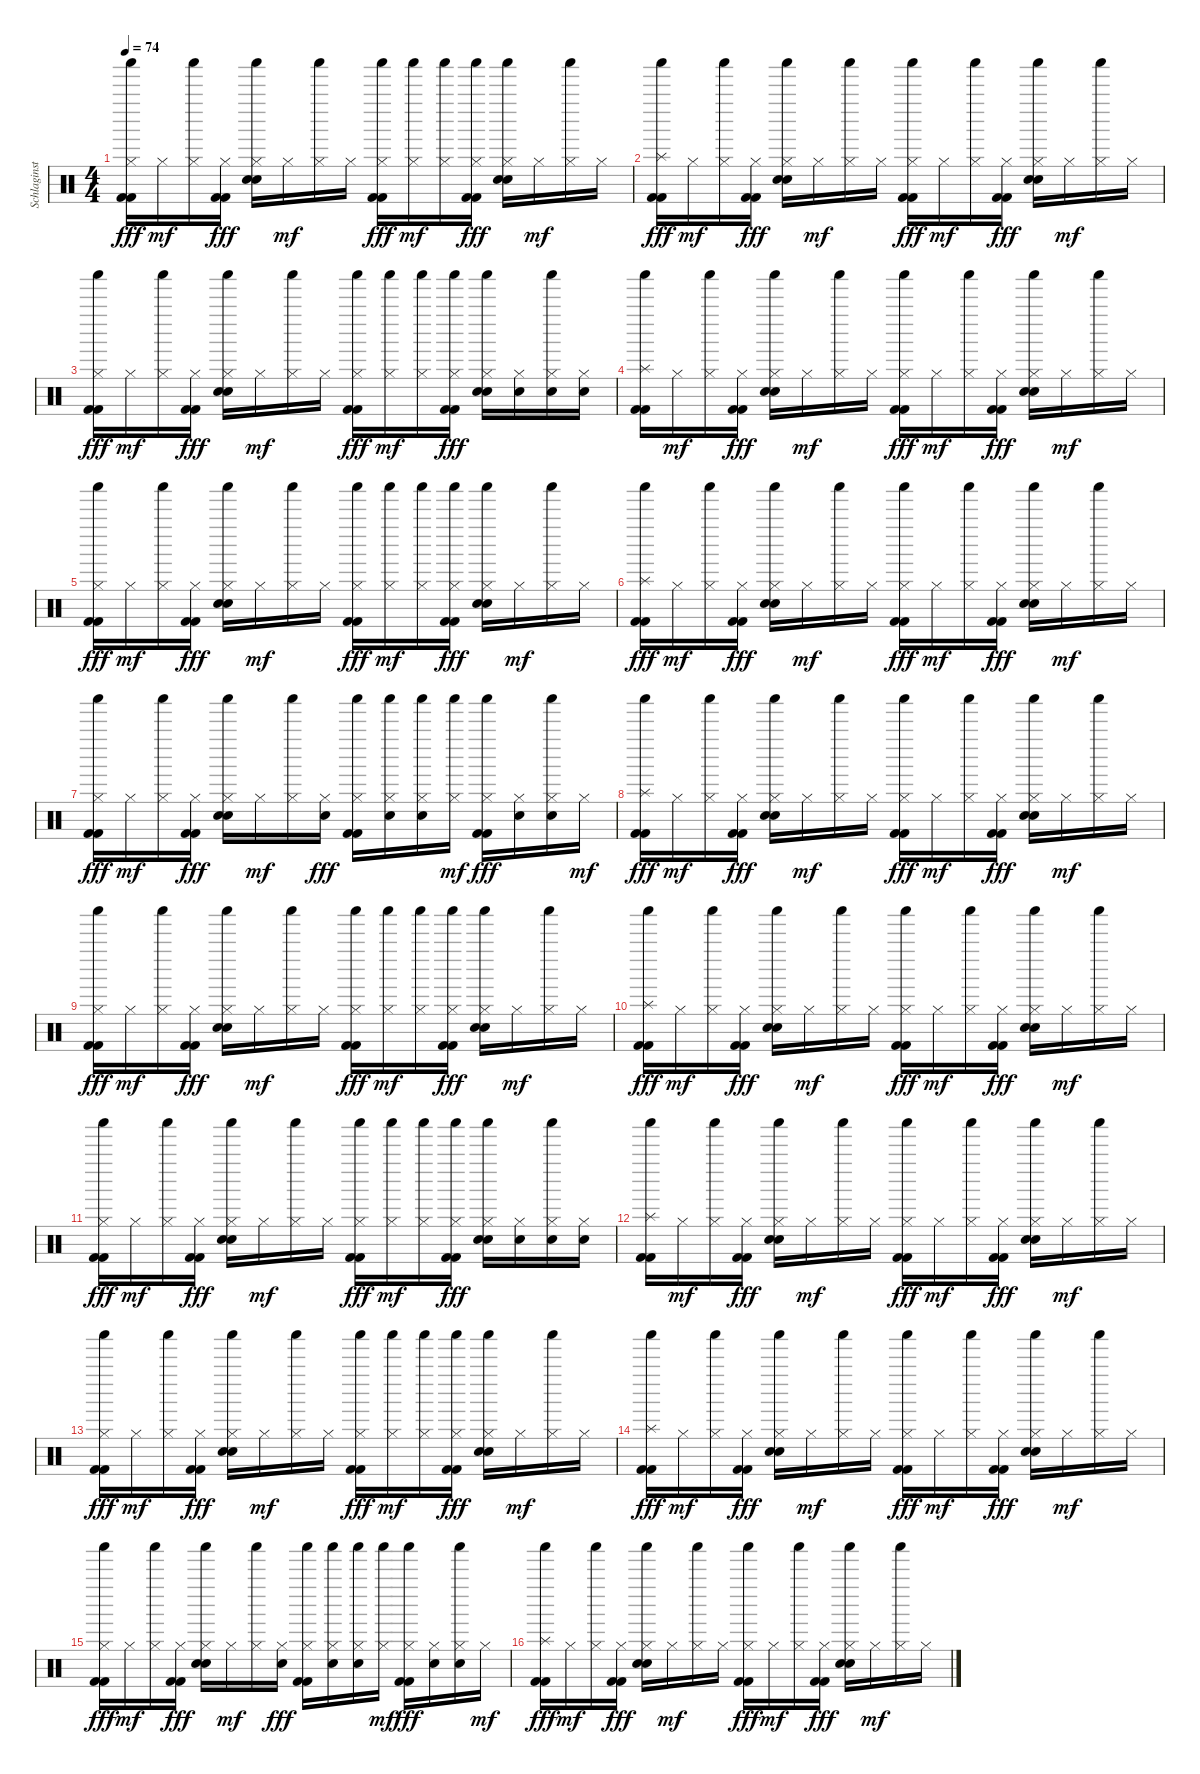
\track ("Schlaginstrumente - Auswahl" "Schlaginst") {instrument percussion}
\staff {score}
\articulation defaults
\ts (4 4)
\tempo 74
\clef neutral
\ks c
("Shaker (hit)" "Hi-Hat (closed)" "Kick (hit) 2" "Kick (hit) 2").16{dy fff} "Hi-Hat (closed)".16{dy mf} ("Shaker (hit)" "Hi-Hat (closed)").16 ("Hi-Hat (closed)" "Kick (hit) 2" "Kick (hit) 2").16{dy fff} ("Shaker (hit)" "Hi-Hat (closed)" "Electric Snare (hit)" "Hand Clap (hit)").16 "Hi-Hat (closed)".16{dy mf} ("Shaker (hit)" "Hi-Hat (closed)").16 "Hi-Hat (closed)".16 ("Shaker (hit)" "Hi-Hat (closed)" "Kick (hit) 2" "Kick (hit) 2").16{dy fff} ("Shaker (hit)" "Hi-Hat (closed)").16{dy mf} ("Shaker (hit)" "Hi-Hat (closed)").16 ("Shaker (hit)" "Hi-Hat (closed)" "Kick (hit) 2" "Kick (hit) 2").16{dy fff} ("Shaker (hit)" "Hi-Hat (closed)" "Electric Snare (hit)" "Hand Clap (hit)").16 "Hi-Hat (closed)".16{dy mf} ("Shaker (hit)" "Hi-Hat (closed)").16 "Hi-Hat (closed)".16 |
("Shaker (hit)" "Splash (hit)" "Kick (hit) 2" "Kick (hit) 2").16{dy fff} "Hi-Hat (closed)".16{dy mf} ("Shaker (hit)" "Hi-Hat (closed)").16 ("Hi-Hat (closed)" "Kick (hit) 2" "Kick (hit) 2").16{dy fff} ("Shaker (hit)" "Hi-Hat (closed)" "Electric Snare (hit)" "Hand Clap (hit)").16 "Hi-Hat (closed)".16{dy mf} ("Shaker (hit)" "Hi-Hat (closed)").16 "Hi-Hat (closed)".16 ("Shaker (hit)" "Hi-Hat (closed)" "Kick (hit) 2" "Kick (hit) 2").16{dy fff} "Hi-Hat (closed)".16{dy mf} ("Shaker (hit)" "Hi-Hat (closed)").16 ("Hi-Hat (closed)" "Kick (hit) 2" "Kick (hit) 2").16{dy fff} ("Shaker (hit)" "Hi-Hat (closed)" "Electric Snare (hit)" "Hand Clap (hit)").16 "Hi-Hat (closed)".16{dy mf} ("Shaker (hit)" "Hi-Hat (closed)").16 "Hi-Hat (closed)".16 |
("Shaker (hit)" "Hi-Hat (closed)" "Kick (hit) 2" "Kick (hit) 2").16{dy fff} "Hi-Hat (closed)".16{dy mf} ("Shaker (hit)" "Hi-Hat (closed)").16 ("Hi-Hat (closed)" "Kick (hit) 2" "Kick (hit) 2").16{dy fff} ("Shaker (hit)" "Hi-Hat (closed)" "Electric Snare (hit)" "Hand Clap (hit)").16 "Hi-Hat (closed)".16{dy mf} ("Shaker (hit)" "Hi-Hat (closed)").16 "Hi-Hat (closed)".16 ("Shaker (hit)" "Hi-Hat (closed)" "Kick (hit) 2" "Kick (hit) 2").16{dy fff} ("Shaker (hit)" "Hi-Hat (closed)").16{dy mf} ("Shaker (hit)" "Hi-Hat (closed)").16 ("Shaker (hit)" "Hi-Hat (closed)" "Kick (hit) 2" "Kick (hit) 2").16{dy fff} ("Shaker (hit)" "Hi-Hat (closed)" "Electric Snare (hit)" "Hand Clap (hit)").16 ("Hi-Hat (closed)" "Electric Snare (hit)").16 ("Shaker (hit)" "Hi-Hat (closed)" "Electric Snare (hit)").16 ("Hi-Hat (closed)" "Electric Snare (hit)").16 |
("Shaker (hit)" "Splash (hit)" "Kick (hit) 2" "Kick (hit) 2").16 "Hi-Hat (closed)".16{dy mf} ("Shaker (hit)" "Hi-Hat (closed)").16 ("Hi-Hat (closed)" "Kick (hit) 2" "Kick (hit) 2").16{dy fff} ("Shaker (hit)" "Hi-Hat (closed)" "Electric Snare (hit)" "Hand Clap (hit)").16 "Hi-Hat (closed)".16{dy mf} ("Shaker (hit)" "Hi-Hat (closed)").16 "Hi-Hat (closed)".16 ("Shaker (hit)" "Hi-Hat (closed)" "Kick (hit) 2" "Kick (hit) 2").16{dy fff} "Hi-Hat (closed)".16{dy mf} ("Shaker (hit)" "Hi-Hat (closed)").16 ("Hi-Hat (closed)" "Kick (hit) 2" "Kick (hit) 2").16{dy fff} ("Shaker (hit)" "Hi-Hat (closed)" "Electric Snare (hit)" "Hand Clap (hit)").16 "Hi-Hat (closed)".16{dy mf} ("Shaker (hit)" "Hi-Hat (closed)").16 "Hi-Hat (closed)".16 |
("Shaker (hit)" "Hi-Hat (closed)" "Kick (hit) 2" "Kick (hit) 2").16{dy fff} "Hi-Hat (closed)".16{dy mf} ("Shaker (hit)" "Hi-Hat (closed)").16 ("Hi-Hat (closed)" "Kick (hit) 2" "Kick (hit) 2").16{dy fff} ("Shaker (hit)" "Hi-Hat (closed)" "Electric Snare (hit)" "Hand Clap (hit)").16 "Hi-Hat (closed)".16{dy mf} ("Shaker (hit)" "Hi-Hat (closed)").16 "Hi-Hat (closed)".16 ("Shaker (hit)" "Hi-Hat (closed)" "Kick (hit) 2" "Kick (hit) 2").16{dy fff} ("Shaker (hit)" "Hi-Hat (closed)").16{dy mf} ("Shaker (hit)" "Hi-Hat (closed)").16 ("Shaker (hit)" "Hi-Hat (closed)" "Kick (hit) 2" "Kick (hit) 2").16{dy fff} ("Shaker (hit)" "Hi-Hat (closed)" "Electric Snare (hit)" "Hand Clap (hit)").16 "Hi-Hat (closed)".16{dy mf} ("Shaker (hit)" "Hi-Hat (closed)").16 "Hi-Hat (closed)".16 |
("Shaker (hit)" "Splash (hit)" "Kick (hit) 2" "Kick (hit) 2").16{dy fff} "Hi-Hat (closed)".16{dy mf} ("Shaker (hit)" "Hi-Hat (closed)").16 ("Hi-Hat (closed)" "Kick (hit) 2" "Kick (hit) 2").16{dy fff} ("Shaker (hit)" "Hi-Hat (closed)" "Electric Snare (hit)" "Hand Clap (hit)").16 "Hi-Hat (closed)".16{dy mf} ("Shaker (hit)" "Hi-Hat (closed)").16 "Hi-Hat (closed)".16 ("Shaker (hit)" "Hi-Hat (closed)" "Kick (hit) 2" "Kick (hit) 2").16{dy fff} "Hi-Hat (closed)".16{dy mf} ("Shaker (hit)" "Hi-Hat (closed)").16 ("Hi-Hat (closed)" "Kick (hit) 2" "Kick (hit) 2").16{dy fff} ("Shaker (hit)" "Hi-Hat (closed)" "Electric Snare (hit)" "Hand Clap (hit)").16 "Hi-Hat (closed)".16{dy mf} ("Shaker (hit)" "Hi-Hat (closed)").16 "Hi-Hat (closed)".16 |
("Shaker (hit)" "Hi-Hat (closed)" "Kick (hit) 2" "Kick (hit) 2").16{dy fff} "Hi-Hat (closed)".16{dy mf} ("Shaker (hit)" "Hi-Hat (closed)").16 ("Hi-Hat (closed)" "Kick (hit) 2" "Kick (hit) 2").16{dy fff} ("Shaker (hit)" "Hi-Hat (closed)" "Electric Snare (hit)" "Hand Clap (hit)").16 "Hi-Hat (closed)".16{dy mf} ("Shaker (hit)" "Hi-Hat (closed)").16 ("Hi-Hat (closed)" "Electric Snare (hit)").16{dy fff} ("Shaker (hit)" "Hi-Hat (closed)" "Kick (hit) 2" "Kick (hit) 2").16 ("Shaker (hit)" "Hi-Hat (closed)" "Electric Snare (hit)").16 ("Shaker (hit)" "Hi-Hat (closed)" "Electric Snare (hit)").16 ("Shaker (hit)" "Hi-Hat (closed)").16{dy mf} ("Shaker (hit)" "Hi-Hat (closed)" "Kick (hit) 2" "Kick (hit) 2").16{dy fff} ("Hi-Hat (closed)" "Electric Snare (hit)").16 ("Shaker (hit)" "Hi-Hat (closed)" "Electric Snare (hit)").16 "Hi-Hat (closed)".16{dy mf} |
("Shaker (hit)" "Splash (hit)" "Kick (hit) 2" "Kick (hit) 2").16{dy fff} "Hi-Hat (closed)".16{dy mf} ("Shaker (hit)" "Hi-Hat (closed)").16 ("Hi-Hat (closed)" "Kick (hit) 2" "Kick (hit) 2").16{dy fff} ("Shaker (hit)" "Hi-Hat (closed)" "Electric Snare (hit)" "Hand Clap (hit)").16 "Hi-Hat (closed)".16{dy mf} ("Shaker (hit)" "Hi-Hat (closed)").16 "Hi-Hat (closed)".16 ("Shaker (hit)" "Hi-Hat (closed)" "Kick (hit) 2" "Kick (hit) 2").16{dy fff} "Hi-Hat (closed)".16{dy mf} ("Shaker (hit)" "Hi-Hat (closed)").16 ("Hi-Hat (closed)" "Kick (hit) 2" "Kick (hit) 2").16{dy fff} ("Shaker (hit)" "Hi-Hat (closed)" "Electric Snare (hit)" "Hand Clap (hit)").16 "Hi-Hat (closed)".16{dy mf} ("Shaker (hit)" "Hi-Hat (closed)").16 "Hi-Hat (closed)".16 |
("Shaker (hit)" "Hi-Hat (closed)" "Kick (hit) 2" "Kick (hit) 2").16{dy fff} "Hi-Hat (closed)".16{dy mf} ("Shaker (hit)" "Hi-Hat (closed)").16 ("Hi-Hat (closed)" "Kick (hit) 2" "Kick (hit) 2").16{dy fff} ("Shaker (hit)" "Hi-Hat (closed)" "Electric Snare (hit)" "Hand Clap (hit)").16 "Hi-Hat (closed)".16{dy mf} ("Shaker (hit)" "Hi-Hat (closed)").16 "Hi-Hat (closed)".16 ("Shaker (hit)" "Hi-Hat (closed)" "Kick (hit) 2" "Kick (hit) 2").16{dy fff} ("Shaker (hit)" "Hi-Hat (closed)").16{dy mf} ("Shaker (hit)" "Hi-Hat (closed)").16 ("Shaker (hit)" "Hi-Hat (closed)" "Kick (hit) 2" "Kick (hit) 2").16{dy fff} ("Shaker (hit)" "Hi-Hat (closed)" "Electric Snare (hit)" "Hand Clap (hit)").16 "Hi-Hat (closed)".16{dy mf} ("Shaker (hit)" "Hi-Hat (closed)").16 "Hi-Hat (closed)".16 |
("Shaker (hit)" "Splash (hit)" "Kick (hit) 2" "Kick (hit) 2").16{dy fff} "Hi-Hat (closed)".16{dy mf} ("Shaker (hit)" "Hi-Hat (closed)").16 ("Hi-Hat (closed)" "Kick (hit) 2" "Kick (hit) 2").16{dy fff} ("Shaker (hit)" "Hi-Hat (closed)" "Electric Snare (hit)" "Hand Clap (hit)").16 "Hi-Hat (closed)".16{dy mf} ("Shaker (hit)" "Hi-Hat (closed)").16 "Hi-Hat (closed)".16 ("Shaker (hit)" "Hi-Hat (closed)" "Kick (hit) 2" "Kick (hit) 2").16{dy fff} "Hi-Hat (closed)".16{dy mf} ("Shaker (hit)" "Hi-Hat (closed)").16 ("Hi-Hat (closed)" "Kick (hit) 2" "Kick (hit) 2").16{dy fff} ("Shaker (hit)" "Hi-Hat (closed)" "Electric Snare (hit)" "Hand Clap (hit)").16 "Hi-Hat (closed)".16{dy mf} ("Shaker (hit)" "Hi-Hat (closed)").16 "Hi-Hat (closed)".16 |
("Shaker (hit)" "Hi-Hat (closed)" "Kick (hit) 2" "Kick (hit) 2").16{dy fff} "Hi-Hat (closed)".16{dy mf} ("Shaker (hit)" "Hi-Hat (closed)").16 ("Hi-Hat (closed)" "Kick (hit) 2" "Kick (hit) 2").16{dy fff} ("Shaker (hit)" "Hi-Hat (closed)" "Electric Snare (hit)" "Hand Clap (hit)").16 "Hi-Hat (closed)".16{dy mf} ("Shaker (hit)" "Hi-Hat (closed)").16 "Hi-Hat (closed)".16 ("Shaker (hit)" "Hi-Hat (closed)" "Kick (hit) 2" "Kick (hit) 2").16{dy fff} ("Shaker (hit)" "Hi-Hat (closed)").16{dy mf} ("Shaker (hit)" "Hi-Hat (closed)").16 ("Shaker (hit)" "Hi-Hat (closed)" "Kick (hit) 2" "Kick (hit) 2").16{dy fff} ("Shaker (hit)" "Hi-Hat (closed)" "Electric Snare (hit)" "Hand Clap (hit)").16 ("Hi-Hat (closed)" "Electric Snare (hit)").16 ("Shaker (hit)" "Hi-Hat (closed)" "Electric Snare (hit)").16 ("Hi-Hat (closed)" "Electric Snare (hit)").16 |
("Shaker (hit)" "Splash (hit)" "Kick (hit) 2" "Kick (hit) 2").16 "Hi-Hat (closed)".16{dy mf} ("Shaker (hit)" "Hi-Hat (closed)").16 ("Hi-Hat (closed)" "Kick (hit) 2" "Kick (hit) 2").16{dy fff} ("Shaker (hit)" "Hi-Hat (closed)" "Electric Snare (hit)" "Hand Clap (hit)").16 "Hi-Hat (closed)".16{dy mf} ("Shaker (hit)" "Hi-Hat (closed)").16 "Hi-Hat (closed)".16 ("Shaker (hit)" "Hi-Hat (closed)" "Kick (hit) 2" "Kick (hit) 2").16{dy fff} "Hi-Hat (closed)".16{dy mf} ("Shaker (hit)" "Hi-Hat (closed)").16 ("Hi-Hat (closed)" "Kick (hit) 2" "Kick (hit) 2").16{dy fff} ("Shaker (hit)" "Hi-Hat (closed)" "Electric Snare (hit)" "Hand Clap (hit)").16 "Hi-Hat (closed)".16{dy mf} ("Shaker (hit)" "Hi-Hat (closed)").16 "Hi-Hat (closed)".16 |
("Shaker (hit)" "Hi-Hat (closed)" "Kick (hit) 2" "Kick (hit) 2").16{dy fff} "Hi-Hat (closed)".16{dy mf} ("Shaker (hit)" "Hi-Hat (closed)").16 ("Hi-Hat (closed)" "Kick (hit) 2" "Kick (hit) 2").16{dy fff} ("Shaker (hit)" "Hi-Hat (closed)" "Electric Snare (hit)" "Hand Clap (hit)").16 "Hi-Hat (closed)".16{dy mf} ("Shaker (hit)" "Hi-Hat (closed)").16 "Hi-Hat (closed)".16 ("Shaker (hit)" "Hi-Hat (closed)" "Kick (hit) 2" "Kick (hit) 2").16{dy fff} ("Shaker (hit)" "Hi-Hat (closed)").16{dy mf} ("Shaker (hit)" "Hi-Hat (closed)").16 ("Shaker (hit)" "Hi-Hat (closed)" "Kick (hit) 2" "Kick (hit) 2").16{dy fff} ("Shaker (hit)" "Hi-Hat (closed)" "Electric Snare (hit)" "Hand Clap (hit)").16 "Hi-Hat (closed)".16{dy mf} ("Shaker (hit)" "Hi-Hat (closed)").16 "Hi-Hat (closed)".16 |
("Shaker (hit)" "Splash (hit)" "Kick (hit) 2" "Kick (hit) 2").16{dy fff} "Hi-Hat (closed)".16{dy mf} ("Shaker (hit)" "Hi-Hat (closed)").16 ("Hi-Hat (closed)" "Kick (hit) 2" "Kick (hit) 2").16{dy fff} ("Shaker (hit)" "Hi-Hat (closed)" "Electric Snare (hit)" "Hand Clap (hit)").16 "Hi-Hat (closed)".16{dy mf} ("Shaker (hit)" "Hi-Hat (closed)").16 "Hi-Hat (closed)".16 ("Shaker (hit)" "Hi-Hat (closed)" "Kick (hit) 2" "Kick (hit) 2").16{dy fff} "Hi-Hat (closed)".16{dy mf} ("Shaker (hit)" "Hi-Hat (closed)").16 ("Hi-Hat (closed)" "Kick (hit) 2" "Kick (hit) 2").16{dy fff} ("Shaker (hit)" "Hi-Hat (closed)" "Electric Snare (hit)" "Hand Clap (hit)").16 "Hi-Hat (closed)".16{dy mf} ("Shaker (hit)" "Hi-Hat (closed)").16 "Hi-Hat (closed)".16 |
("Shaker (hit)" "Hi-Hat (closed)" "Kick (hit) 2" "Kick (hit) 2").16{dy fff} "Hi-Hat (closed)".16{dy mf} ("Shaker (hit)" "Hi-Hat (closed)").16 ("Hi-Hat (closed)" "Kick (hit) 2" "Kick (hit) 2").16{dy fff} ("Shaker (hit)" "Hi-Hat (closed)" "Electric Snare (hit)" "Hand Clap (hit)").16 "Hi-Hat (closed)".16{dy mf} ("Shaker (hit)" "Hi-Hat (closed)").16 ("Hi-Hat (closed)" "Electric Snare (hit)").16{dy fff} ("Shaker (hit)" "Hi-Hat (closed)" "Kick (hit) 2" "Kick (hit) 2").16 ("Shaker (hit)" "Hi-Hat (closed)" "Electric Snare (hit)").16 ("Shaker (hit)" "Hi-Hat (closed)" "Electric Snare (hit)").16 ("Shaker (hit)" "Hi-Hat (closed)").16{dy mf} ("Shaker (hit)" "Hi-Hat (closed)" "Kick (hit) 2" "Kick (hit) 2").16{dy fff} ("Hi-Hat (closed)" "Electric Snare (hit)").16 ("Shaker (hit)" "Hi-Hat (closed)" "Electric Snare (hit)").16 "Hi-Hat (closed)".16{dy mf} |
("Shaker (hit)" "Splash (hit)" "Kick (hit) 2" "Kick (hit) 2").16{dy fff} "Hi-Hat (closed)".16{dy mf} ("Shaker (hit)" "Hi-Hat (closed)").16 ("Hi-Hat (closed)" "Kick (hit) 2" "Kick (hit) 2").16{dy fff} ("Shaker (hit)" "Hi-Hat (closed)" "Electric Snare (hit)" "Hand Clap (hit)").16 "Hi-Hat (closed)".16{dy mf} ("Shaker (hit)" "Hi-Hat (closed)").16 "Hi-Hat (closed)".16 ("Shaker (hit)" "Hi-Hat (closed)" "Kick (hit) 2" "Kick (hit) 2").16{dy fff} "Hi-Hat (closed)".16{dy mf} ("Shaker (hit)" "Hi-Hat (closed)").16 ("Hi-Hat (closed)" "Kick (hit) 2" "Kick (hit) 2").16{dy fff} ("Shaker (hit)" "Hi-Hat (closed)" "Electric Snare (hit)" "Hand Clap (hit)").16 "Hi-Hat (closed)".16{dy mf} ("Shaker (hit)" "Hi-Hat (closed)").16 "Hi-Hat (closed)".16
